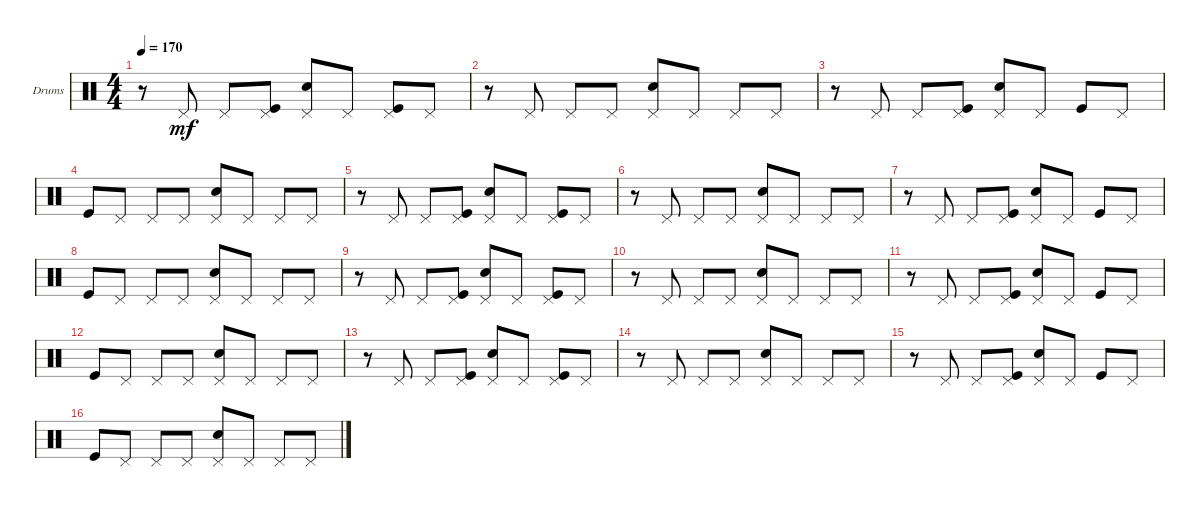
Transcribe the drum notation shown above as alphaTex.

\defaultSystemsLayout 4
\bracketExtendMode groupsimilarinstruments
\firstSystemTrackNameOrientation horizontal
\otherSystemsTrackNameOrientation horizontal
\track ("Drumkit" "Drums") {instrument percussion}
\staff {score}
\articulation defaults
\ts (4 4)
\tempo 170
\clef neutral
\ks c
r.8{dy mf} "Pedal Hi-Hat (hit)".8 "Pedal Hi-Hat (hit)".8 ("Pedal Hi-Hat (hit)" "Kick (hit)").8 ("Pedal Hi-Hat (hit)" "Snare (hit) 2").8 "Pedal Hi-Hat (hit)".8 ("Pedal Hi-Hat (hit)" "Kick (hit)").8 "Pedal Hi-Hat (hit)".8 |
r.8 "Pedal Hi-Hat (hit)".8 "Pedal Hi-Hat (hit)".8 "Pedal Hi-Hat (hit)".8 ("Pedal Hi-Hat (hit)" "Snare (hit) 2").8 "Pedal Hi-Hat (hit)".8 "Pedal Hi-Hat (hit)".8 "Pedal Hi-Hat (hit)".8 |
r.8 "Pedal Hi-Hat (hit)".8 "Pedal Hi-Hat (hit)".8 ("Pedal Hi-Hat (hit)" "Kick (hit)").8 ("Pedal Hi-Hat (hit)" "Snare (hit) 2").8 "Pedal Hi-Hat (hit)".8 "Kick (hit)".8 "Pedal Hi-Hat (hit)".8 |
"Kick (hit)".8 "Pedal Hi-Hat (hit)".8 "Pedal Hi-Hat (hit)".8 "Pedal Hi-Hat (hit)".8 ("Pedal Hi-Hat (hit)" "Snare (hit) 2").8 "Pedal Hi-Hat (hit)".8 "Pedal Hi-Hat (hit)".8 "Pedal Hi-Hat (hit)".8 |
r.8 "Pedal Hi-Hat (hit)".8 "Pedal Hi-Hat (hit)".8 ("Pedal Hi-Hat (hit)" "Kick (hit)").8 ("Pedal Hi-Hat (hit)" "Snare (hit) 2").8 "Pedal Hi-Hat (hit)".8 ("Pedal Hi-Hat (hit)" "Kick (hit)").8 "Pedal Hi-Hat (hit)".8 |
r.8 "Pedal Hi-Hat (hit)".8 "Pedal Hi-Hat (hit)".8 "Pedal Hi-Hat (hit)".8 ("Pedal Hi-Hat (hit)" "Snare (hit) 2").8 "Pedal Hi-Hat (hit)".8 "Pedal Hi-Hat (hit)".8 "Pedal Hi-Hat (hit)".8 |
r.8 "Pedal Hi-Hat (hit)".8 "Pedal Hi-Hat (hit)".8 ("Pedal Hi-Hat (hit)" "Kick (hit)").8 ("Pedal Hi-Hat (hit)" "Snare (hit) 2").8 "Pedal Hi-Hat (hit)".8 "Kick (hit)".8 "Pedal Hi-Hat (hit)".8 |
"Kick (hit)".8 "Pedal Hi-Hat (hit)".8 "Pedal Hi-Hat (hit)".8 "Pedal Hi-Hat (hit)".8 ("Pedal Hi-Hat (hit)" "Snare (hit) 2").8 "Pedal Hi-Hat (hit)".8 "Pedal Hi-Hat (hit)".8 "Pedal Hi-Hat (hit)".8 |
r.8 "Pedal Hi-Hat (hit)".8 "Pedal Hi-Hat (hit)".8 ("Pedal Hi-Hat (hit)" "Kick (hit)").8 ("Pedal Hi-Hat (hit)" "Snare (hit) 2").8 "Pedal Hi-Hat (hit)".8 ("Pedal Hi-Hat (hit)" "Kick (hit)").8 "Pedal Hi-Hat (hit)".8 |
r.8 "Pedal Hi-Hat (hit)".8 "Pedal Hi-Hat (hit)".8 "Pedal Hi-Hat (hit)".8 ("Pedal Hi-Hat (hit)" "Snare (hit) 2").8 "Pedal Hi-Hat (hit)".8 "Pedal Hi-Hat (hit)".8 "Pedal Hi-Hat (hit)".8 |
r.8 "Pedal Hi-Hat (hit)".8 "Pedal Hi-Hat (hit)".8 ("Pedal Hi-Hat (hit)" "Kick (hit)").8 ("Pedal Hi-Hat (hit)" "Snare (hit) 2").8 "Pedal Hi-Hat (hit)".8 "Kick (hit)".8 "Pedal Hi-Hat (hit)".8 |
"Kick (hit)".8 "Pedal Hi-Hat (hit)".8 "Pedal Hi-Hat (hit)".8 "Pedal Hi-Hat (hit)".8 ("Pedal Hi-Hat (hit)" "Snare (hit) 2").8 "Pedal Hi-Hat (hit)".8 "Pedal Hi-Hat (hit)".8 "Pedal Hi-Hat (hit)".8 |
r.8 "Pedal Hi-Hat (hit)".8 "Pedal Hi-Hat (hit)".8 ("Pedal Hi-Hat (hit)" "Kick (hit)").8 ("Pedal Hi-Hat (hit)" "Snare (hit) 2").8 "Pedal Hi-Hat (hit)".8 ("Pedal Hi-Hat (hit)" "Kick (hit)").8 "Pedal Hi-Hat (hit)".8 |
r.8 "Pedal Hi-Hat (hit)".8 "Pedal Hi-Hat (hit)".8 "Pedal Hi-Hat (hit)".8 ("Pedal Hi-Hat (hit)" "Snare (hit) 2").8 "Pedal Hi-Hat (hit)".8 "Pedal Hi-Hat (hit)".8 "Pedal Hi-Hat (hit)".8 |
r.8 "Pedal Hi-Hat (hit)".8 "Pedal Hi-Hat (hit)".8 ("Pedal Hi-Hat (hit)" "Kick (hit)").8 ("Pedal Hi-Hat (hit)" "Snare (hit) 2").8 "Pedal Hi-Hat (hit)".8 "Kick (hit)".8 "Pedal Hi-Hat (hit)".8 |
"Kick (hit)".8 "Pedal Hi-Hat (hit)".8 "Pedal Hi-Hat (hit)".8 "Pedal Hi-Hat (hit)".8 ("Pedal Hi-Hat (hit)" "Snare (hit) 2").8 "Pedal Hi-Hat (hit)".8 "Pedal Hi-Hat (hit)".8 "Pedal Hi-Hat (hit)".8
